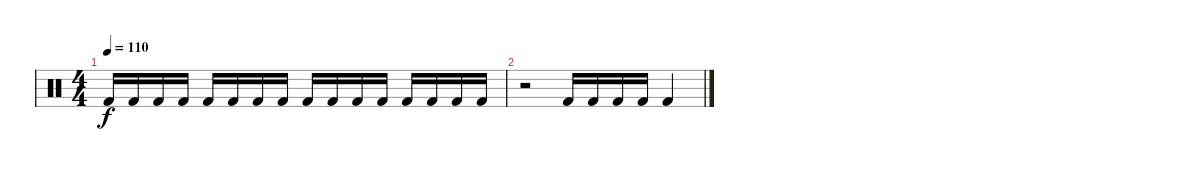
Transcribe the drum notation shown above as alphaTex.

\track "" {instrument percussion}
\staff {score}
\articulation defaults
\ts (4 4)
\tempo 110
\clef neutral
\ks c "Kick (hit) 2".16{dy f} "Kick (hit) 2".16 "Kick (hit) 2".16 "Kick (hit) 2".16 "Kick (hit) 2".16 "Kick (hit) 2".16 "Kick (hit) 2".16 "Kick (hit) 2".16 "Kick (hit) 2".16 "Kick (hit) 2".16 "Kick (hit) 2".16 "Kick (hit) 2".16 "Kick (hit) 2".16 "Kick (hit) 2".16 "Kick (hit) 2".16 "Kick (hit) 2".16
|
r.2 "Kick (hit) 2".16 "Kick (hit) 2".16 "Kick (hit) 2".16 "Kick (hit) 2".16 "Kick (hit) 2".4
